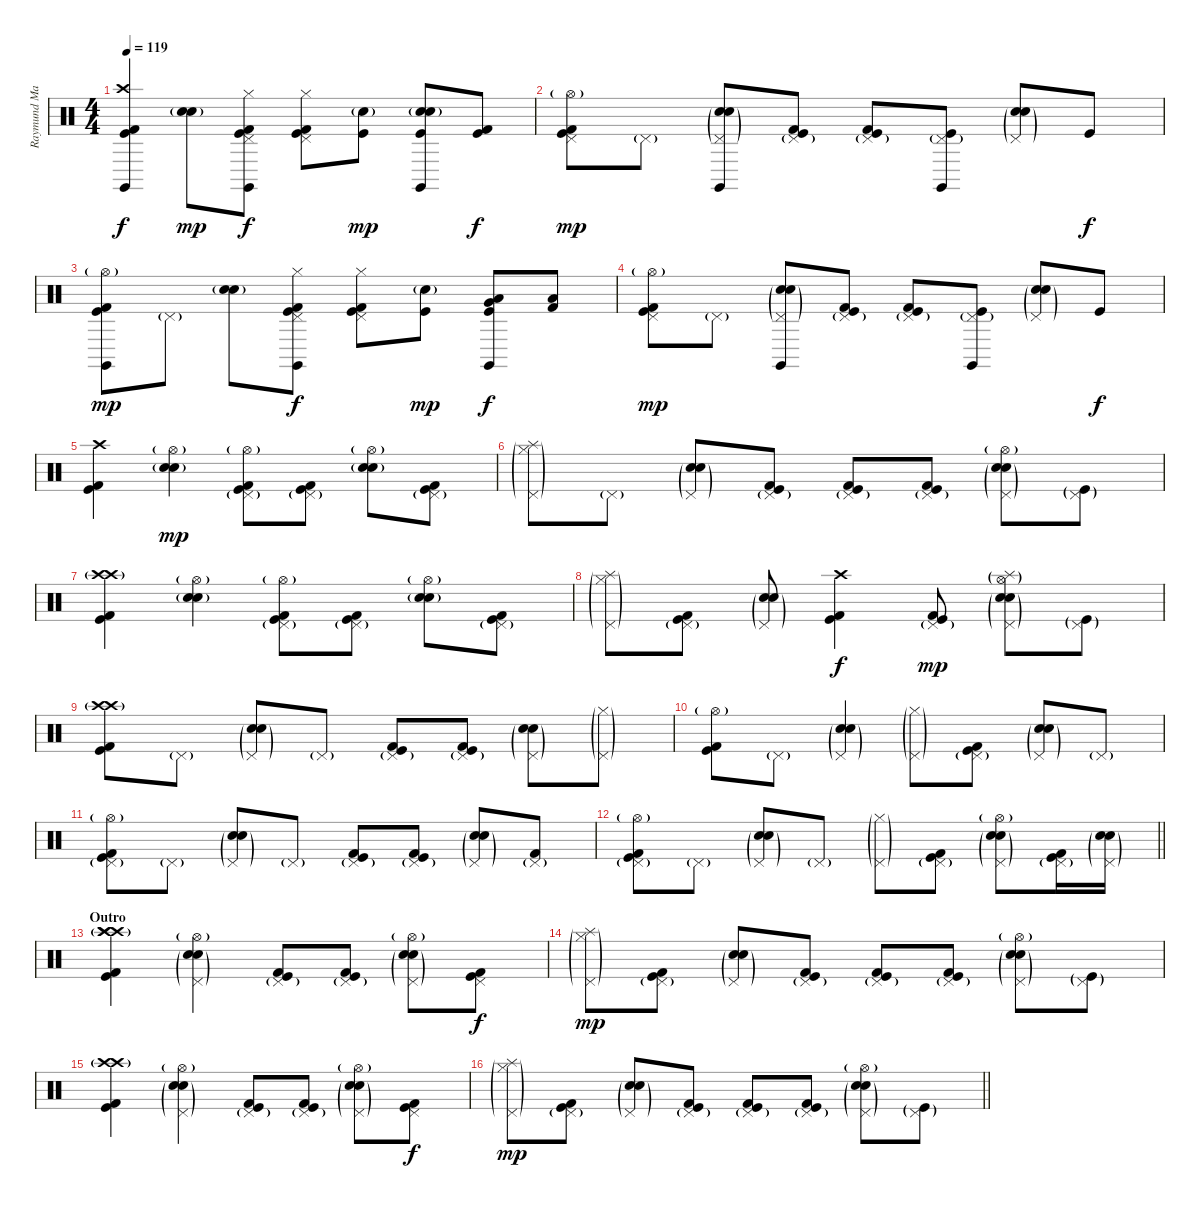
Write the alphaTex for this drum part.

\track ("Raymund Marasigan(Drums)" "Raymund Ma") {instrument percussion}
\staff {score}
\articulation defaults
\ts (4 4)
\tempo 119
\clef neutral
\ks c
("Crash high (hit)" "Kick (hit) 2" "Kick (hit)" "Claves (hit)").4{dy f} ("Electric Snare (hit)" "Snare (hit) 2"{g}).8{dy mp} ("Pedal Hi-Hat (hit)" "Hi-Hat (closed)" "Kick (hit) 2" "Kick (hit)" "Claves (hit)").8{dy f} ("Pedal Hi-Hat (hit)" "Hi-Hat (closed)" "Kick (hit) 2" "Kick (hit)").8 ("Kick (hit)" "Electric Snare (hit)"{g}).8{dy mp} ("Kick (hit)" "Electric Snare (hit)" "Snare (hit) 2"{g} "Claves (hit)").8 ("Kick (hit) 2" "Kick (hit)").8{dy f} |
("Pedal Hi-Hat (hit)" "Kick (hit) 2" "Kick (hit)" "Hi-Hat (open)"{g}).8{dy mp} "Pedal Hi-Hat (hit)"{g}.8 ("Pedal Hi-Hat (hit)"{g} "Electric Snare (hit)" "Snare (hit) 2"{g} "Claves (hit)").8 ("Pedal Hi-Hat (hit)"{g} "Kick (hit) 2" "Kick (hit)").8 ("Pedal Hi-Hat (hit)"{g} "Kick (hit) 2" "Kick (hit)").8 ("Pedal Hi-Hat (hit)"{g} "Kick (hit)" "Claves (hit)").8 ("Pedal Hi-Hat (hit)"{g} "Electric Snare (hit)" "Snare (hit) 2"{g}).8 "Kick (hit)".8{dy f} |
("Hi-Hat (open)"{g} "Kick (hit) 2" "Kick (hit)" "Claves (hit)").8{dy mp} "Pedal Hi-Hat (hit)"{g}.8 ("Electric Snare (hit)" "Snare (hit) 2"{g}).8 ("Pedal Hi-Hat (hit)" "Hi-Hat (closed)" "Kick (hit) 2" "Kick (hit)" "Claves (hit)").8{dy f} ("Pedal Hi-Hat (hit)" "Hi-Hat (closed)" "Kick (hit) 2" "Kick (hit)").8 ("Kick (hit)" "Electric Snare (hit)"{g}).8{dy mp} ("Kick (hit)" "Low Tom (hit)" "Very Low Tom (hit)" "Claves (hit)").8{dy f} ("Kick (hit) 2" "Low Floor Tom (hit)").8 |
("Pedal Hi-Hat (hit)" "Kick (hit) 2" "Kick (hit)" "Hi-Hat (open)"{g}).8{dy mp} "Pedal Hi-Hat (hit)"{g}.8 ("Pedal Hi-Hat (hit)"{g} "Electric Snare (hit)" "Snare (hit) 2"{g} "Claves (hit)").8 ("Pedal Hi-Hat (hit)"{g} "Kick (hit) 2" "Kick (hit)").8 ("Pedal Hi-Hat (hit)"{g} "Kick (hit) 2" "Kick (hit)").8 ("Pedal Hi-Hat (hit)"{g} "Kick (hit)" "Claves (hit)").8 ("Pedal Hi-Hat (hit)"{g} "Electric Snare (hit)" "Snare (hit) 2"{g}).8 "Kick (hit)".8{dy f} |
("Crash high (hit)" "Kick (hit) 2" "Kick (hit)").4 ("Electric Snare (hit)" "Snare (hit) 2"{g} "Hi-Hat (open)"{g}).4{dy mp} ("Pedal Hi-Hat (hit)"{g} "Kick (hit) 2" "Kick (hit)" "Hi-Hat (open)"{g}).8 ("Pedal Hi-Hat (hit)"{g} "Kick (hit) 2" "Kick (hit)").8 ("Electric Snare (hit)" "Snare (hit) 2"{g} "Hi-Hat (open)"{g}).8 ("Pedal Hi-Hat (hit)"{g} "Kick (hit) 2" "Kick (hit)").8 |
("Pedal Hi-Hat (hit)"{g} "Hi-Hat (closed)"{g} "Splash (hit)"{g}).8 "Pedal Hi-Hat (hit)"{g}.8 ("Pedal Hi-Hat (hit)"{g} "Electric Snare (hit)" "Snare (hit) 2"{g}).8 ("Pedal Hi-Hat (hit)"{g} "Kick (hit) 2" "Kick (hit)").8 ("Pedal Hi-Hat (hit)"{g} "Kick (hit) 2" "Kick (hit)").8 ("Pedal Hi-Hat (hit)"{g} "Kick (hit) 2" "Kick (hit)").8 ("Pedal Hi-Hat (hit)"{g} "Electric Snare (hit)" "Snare (hit) 2"{g} "Hi-Hat (open)"{g}).8 ("Pedal Hi-Hat (hit)"{g} "Kick (hit)"{g}).8 |
("Crash high (hit)"{g} "Crash high (hit)"{g} "Kick (hit) 2" "Kick (hit)").4 ("Electric Snare (hit)" "Snare (hit) 2"{g} "Hi-Hat (open)"{g}).4 ("Pedal Hi-Hat (hit)"{g} "Kick (hit) 2" "Kick (hit)" "Hi-Hat (open)"{g}).8 ("Pedal Hi-Hat (hit)"{g} "Kick (hit) 2" "Kick (hit)").8 ("Electric Snare (hit)" "Snare (hit) 2"{g} "Hi-Hat (open)"{g}).8 ("Pedal Hi-Hat (hit)"{g} "Kick (hit) 2" "Kick (hit)").8 |
("Pedal Hi-Hat (hit)"{g} "Hi-Hat (closed)"{g} "Splash (hit)"{g}).8 ("Pedal Hi-Hat (hit)"{g} "Kick (hit) 2" "Kick (hit)").8 ("Pedal Hi-Hat (hit)"{g} "Electric Snare (hit)" "Snare (hit) 2"{g}).8 ("Crash high (hit)" "Kick (hit) 2" "Kick (hit)").4{dy f} ("Pedal Hi-Hat (hit)"{g} "Kick (hit) 2" "Kick (hit)").8{dy mp} ("Pedal Hi-Hat (hit)"{g} "Electric Snare (hit)" "Snare (hit) 2"{g} "Hi-Hat (open)"{g} "Splash (hit)"{g}).8 ("Pedal Hi-Hat (hit)"{g} "Kick (hit)"{g}).8 |
("Crash high (hit)"{g} "Crash high (hit)"{g} "Kick (hit) 2" "Kick (hit)").8 "Pedal Hi-Hat (hit)"{g}.8 ("Pedal Hi-Hat (hit)"{g} "Electric Snare (hit)" "Snare (hit) 2"{g}).8 "Pedal Hi-Hat (hit)"{g}.8 ("Pedal Hi-Hat (hit)"{g} "Kick (hit) 2" "Kick (hit)").8 ("Pedal Hi-Hat (hit)"{g} "Kick (hit) 2" "Kick (hit)").8 ("Pedal Hi-Hat (hit)"{g} "Electric Snare (hit)" "Snare (hit) 2"{g}).8 ("Pedal Hi-Hat (hit)"{g} "Hi-Hat (closed)"{g}).8 |
("Kick (hit) 2" "Kick (hit)" "Hi-Hat (open)"{g}).8 "Pedal Hi-Hat (hit)"{g}.8 ("Pedal Hi-Hat (hit)"{g} "Electric Snare (hit)" "Snare (hit) 2"{g}).4 ("Pedal Hi-Hat (hit)"{g} "Hi-Hat (closed)"{g}).8 ("Pedal Hi-Hat (hit)"{g} "Kick (hit) 2" "Kick (hit)").8 ("Pedal Hi-Hat (hit)"{g} "Electric Snare (hit)" "Snare (hit) 2"{g}).8 "Pedal Hi-Hat (hit)"{g}.8 |
("Pedal Hi-Hat (hit)"{g} "Kick (hit) 2" "Kick (hit)" "Hi-Hat (open)"{g}).8 "Pedal Hi-Hat (hit)"{g}.8 ("Pedal Hi-Hat (hit)"{g} "Electric Snare (hit)" "Snare (hit) 2"{g}).8 "Pedal Hi-Hat (hit)"{g}.8 ("Pedal Hi-Hat (hit)"{g} "Kick (hit) 2" "Kick (hit)").8 ("Pedal Hi-Hat (hit)"{g} "Kick (hit) 2" "Kick (hit)").8 ("Pedal Hi-Hat (hit)"{g} "Electric Snare (hit)" "Snare (hit) 2"{g}).8 ("Pedal Hi-Hat (hit)"{g} "Kick (hit) 2").8 |
\barLineRight lightlight
("Pedal Hi-Hat (hit)"{g} "Kick (hit) 2" "Kick (hit)" "Hi-Hat (open)"{g}).8 "Pedal Hi-Hat (hit)"{g}.8 ("Pedal Hi-Hat (hit)"{g} "Electric Snare (hit)" "Snare (hit) 2"{g}).8 "Pedal Hi-Hat (hit)"{g}.8 ("Pedal Hi-Hat (hit)"{g} "Hi-Hat (closed)"{g}).8 ("Pedal Hi-Hat (hit)"{g} "Kick (hit) 2" "Kick (hit)").8 ("Pedal Hi-Hat (hit)"{g} "Electric Snare (hit)" "Snare (hit) 2"{g} "Hi-Hat (open)"{g}).8 ("Pedal Hi-Hat (hit)"{g} "Kick (hit) 2" "Kick (hit)").16 ("Pedal Hi-Hat (hit)"{g} "Electric Snare (hit)" "Snare (hit) 2"{g}).16 |
\section ("" "Outro")
("Crash high (hit)"{g} "Crash high (hit)"{g} "Crash high (hit)"{g} "Kick (hit) 2" "Kick (hit)").4 ("Pedal Hi-Hat (hit)"{g} "Electric Snare (hit)" "Snare (hit) 2"{g} "Hi-Hat (open)"{g}).4 ("Pedal Hi-Hat (hit)"{g} "Kick (hit) 2" "Kick (hit)").8 ("Pedal Hi-Hat (hit)"{g} "Kick (hit) 2" "Kick (hit)").8 ("Pedal Hi-Hat (hit)"{g} "Electric Snare (hit)" "Snare (hit) 2"{g} "Hi-Hat (open)"{g}).8 ("Pedal Hi-Hat (hit)" "Kick (hit) 2" "Kick (hit)").8{dy f} |
("Pedal Hi-Hat (hit)"{g} "Hi-Hat (closed)"{g} "Splash (hit)"{g}).8{dy mp} ("Pedal Hi-Hat (hit)"{g} "Kick (hit) 2" "Kick (hit)").8 ("Pedal Hi-Hat (hit)"{g} "Electric Snare (hit)" "Snare (hit) 2"{g}).8 ("Pedal Hi-Hat (hit)"{g} "Kick (hit) 2" "Kick (hit)").8 ("Pedal Hi-Hat (hit)"{g} "Kick (hit) 2" "Kick (hit)").8 ("Pedal Hi-Hat (hit)"{g} "Kick (hit) 2" "Kick (hit)").8 ("Pedal Hi-Hat (hit)"{g} "Electric Snare (hit)" "Snare (hit) 2"{g} "Hi-Hat (open)"{g}).8 ("Pedal Hi-Hat (hit)"{g} "Kick (hit)"{g}).8 |
("Crash high (hit)"{g} "Crash high (hit)"{g} "Kick (hit) 2" "Kick (hit)").4 ("Pedal Hi-Hat (hit)"{g} "Electric Snare (hit)" "Snare (hit) 2"{g} "Hi-Hat (open)"{g}).4 ("Pedal Hi-Hat (hit)"{g} "Kick (hit) 2" "Kick (hit)").8 ("Pedal Hi-Hat (hit)"{g} "Kick (hit) 2" "Kick (hit)").8 ("Pedal Hi-Hat (hit)"{g} "Electric Snare (hit)" "Snare (hit) 2"{g} "Hi-Hat (open)"{g}).8 ("Pedal Hi-Hat (hit)" "Kick (hit) 2" "Kick (hit)").8{dy f} |
\barLineRight lightlight
("Pedal Hi-Hat (hit)"{g} "Hi-Hat (closed)"{g} "Splash (hit)"{g}).8{dy mp} ("Pedal Hi-Hat (hit)"{g} "Kick (hit) 2" "Kick (hit)").8 ("Pedal Hi-Hat (hit)"{g} "Electric Snare (hit)" "Snare (hit) 2"{g}).8 ("Pedal Hi-Hat (hit)"{g} "Kick (hit) 2" "Kick (hit)").8 ("Pedal Hi-Hat (hit)"{g} "Kick (hit) 2" "Kick (hit)").8 ("Pedal Hi-Hat (hit)"{g} "Kick (hit) 2" "Kick (hit)").8 ("Pedal Hi-Hat (hit)"{g} "Electric Snare (hit)" "Snare (hit) 2"{g} "Hi-Hat (open)"{g}).8 ("Pedal Hi-Hat (hit)"{g} "Kick (hit)"{g}).8
